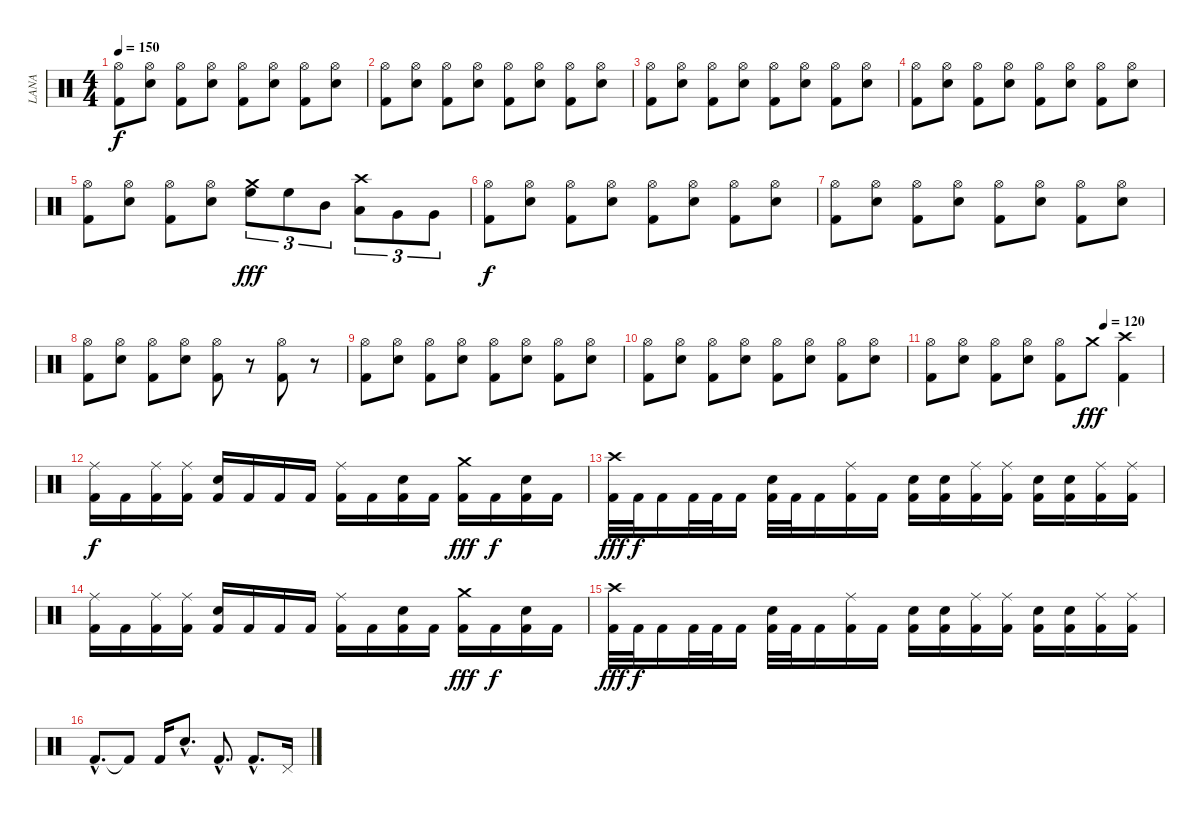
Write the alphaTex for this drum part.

\track ("LANA" "LANA") {instrument percussion}
\staff {score}
\articulation defaults
\ts (4 4)
\tempo 150
\clef neutral
\ks c
("Hi-Hat (open)" "Kick (hit) 2").8{dy f} ("Hi-Hat (open)" "Electric Snare (hit)").8 ("Hi-Hat (open)" "Kick (hit) 2").8 ("Hi-Hat (open)" "Electric Snare (hit)").8 ("Hi-Hat (open)" "Kick (hit) 2").8 ("Hi-Hat (open)" "Electric Snare (hit)").8 ("Hi-Hat (open)" "Kick (hit) 2").8 ("Hi-Hat (open)" "Electric Snare (hit)").8 |
("Hi-Hat (open)" "Kick (hit) 2").8 ("Hi-Hat (open)" "Electric Snare (hit)").8 ("Hi-Hat (open)" "Kick (hit) 2").8 ("Hi-Hat (open)" "Electric Snare (hit)").8 ("Hi-Hat (open)" "Kick (hit) 2").8 ("Hi-Hat (open)" "Electric Snare (hit)").8 ("Hi-Hat (open)" "Kick (hit) 2").8 ("Hi-Hat (open)" "Electric Snare (hit)").8 |
("Hi-Hat (open)" "Kick (hit) 2").8 ("Hi-Hat (open)" "Electric Snare (hit)").8 ("Hi-Hat (open)" "Kick (hit) 2").8 ("Hi-Hat (open)" "Electric Snare (hit)").8 ("Hi-Hat (open)" "Kick (hit) 2").8 ("Hi-Hat (open)" "Electric Snare (hit)").8 ("Hi-Hat (open)" "Kick (hit) 2").8 ("Hi-Hat (open)" "Electric Snare (hit)").8 |
("Hi-Hat (open)" "Kick (hit) 2").8 ("Hi-Hat (open)" "Electric Snare (hit)").8 ("Hi-Hat (open)" "Kick (hit) 2").8 ("Hi-Hat (open)" "Electric Snare (hit)").8 ("Hi-Hat (open)" "Kick (hit) 2").8 ("Hi-Hat (open)" "Electric Snare (hit)").8 ("Hi-Hat (open)" "Kick (hit) 2").8 ("Hi-Hat (open)" "Electric Snare (hit)").8 |
("Hi-Hat (open)" "Kick (hit) 2").8 ("Hi-Hat (open)" "Electric Snare (hit)").8 ("Hi-Hat (open)" "Kick (hit) 2").8 ("Hi-Hat (open)" "Electric Snare (hit)").8 ("Crash medium (hit)" "High Floor Tom (hit)").8{tu (3 2) dy fff} "High Floor Tom (hit)".8{tu (3 2)} "Mid Tom (hit)".8{tu (3 2)} ("Crash high (hit)" "Low Tom (hit)").8{tu (3 2)} "Very Low Tom (hit)".8{tu (3 2)} "Very Low Tom (hit)".8{tu (3 2)} |
("Hi-Hat (open)" "Kick (hit) 2").8{dy f} ("Hi-Hat (open)" "Electric Snare (hit)").8 ("Hi-Hat (open)" "Kick (hit) 2").8 ("Hi-Hat (open)" "Electric Snare (hit)").8 ("Hi-Hat (open)" "Kick (hit) 2").8 ("Hi-Hat (open)" "Electric Snare (hit)").8 ("Hi-Hat (open)" "Kick (hit) 2").8 ("Hi-Hat (open)" "Electric Snare (hit)").8 |
("Hi-Hat (open)" "Kick (hit) 2").8 ("Hi-Hat (open)" "Electric Snare (hit)").8 ("Hi-Hat (open)" "Kick (hit) 2").8 ("Hi-Hat (open)" "Electric Snare (hit)").8 ("Hi-Hat (open)" "Kick (hit) 2").8 ("Hi-Hat (open)" "Electric Snare (hit)").8 ("Hi-Hat (open)" "Kick (hit) 2").8 ("Hi-Hat (open)" "Electric Snare (hit)").8 |
("Hi-Hat (open)" "Kick (hit) 2").8 ("Hi-Hat (open)" "Electric Snare (hit)").8 ("Hi-Hat (open)" "Kick (hit) 2").8 ("Hi-Hat (open)" "Electric Snare (hit)").8 ("Hi-Hat (open)" "Kick (hit) 2").8 r.8 ("Hi-Hat (open)" "Kick (hit) 2").8 r.8 |
("Hi-Hat (open)" "Kick (hit) 2").8 ("Hi-Hat (open)" "Electric Snare (hit)").8 ("Hi-Hat (open)" "Kick (hit) 2").8 ("Hi-Hat (open)" "Electric Snare (hit)").8 ("Hi-Hat (open)" "Kick (hit) 2").8 ("Hi-Hat (open)" "Electric Snare (hit)").8 ("Hi-Hat (open)" "Kick (hit) 2").8 ("Hi-Hat (open)" "Electric Snare (hit)").8 |
("Hi-Hat (open)" "Kick (hit) 2").8 ("Hi-Hat (open)" "Electric Snare (hit)").8 ("Hi-Hat (open)" "Kick (hit) 2").8 ("Hi-Hat (open)" "Electric Snare (hit)").8 ("Hi-Hat (open)" "Kick (hit) 2").8 ("Hi-Hat (open)" "Electric Snare (hit)").8 ("Hi-Hat (open)" "Kick (hit) 2").8 ("Hi-Hat (open)" "Electric Snare (hit)").8 |
\tempo (120 0.75)
("Hi-Hat (open)" "Kick (hit) 2").8 ("Hi-Hat (open)" "Electric Snare (hit)").8 ("Hi-Hat (open)" "Kick (hit) 2").8 ("Hi-Hat (open)" "Electric Snare (hit)").8 ("Hi-Hat (open)" "Kick (hit) 2").8 "Crash medium (hit)".8{dy fff} ("Crash high (hit)" "Kick (hit) 2").4 |
("Ride (middle)" "Kick (hit) 2").16{dy f} "Kick (hit) 2".16 ("Ride (middle)" "Kick (hit) 2").16 ("Ride (middle)" "Kick (hit) 2").16 ("Electric Snare (hit)" "Kick (hit) 2").16 "Kick (hit) 2".16 "Kick (hit) 2".16 "Kick (hit) 2".16 ("Ride (middle)" "Kick (hit) 2").16 "Kick (hit) 2".16 ("Electric Snare (hit)" "Kick (hit) 2").16 "Kick (hit) 2".16 ("Crash medium (hit)" "Kick (hit) 2").16{dy fff} "Kick (hit) 2".16{dy f} ("Electric Snare (hit)" "Kick (hit) 2").16 "Kick (hit) 2".16 |
("Crash high (hit)" "Kick (hit) 2").32{dy fff} "Kick (hit) 2".32{dy f} "Kick (hit) 2".16 "Kick (hit) 2".32 "Kick (hit) 2".32 "Kick (hit) 2".16 ("Electric Snare (hit)" "Kick (hit) 2").32 "Kick (hit) 2".32 "Kick (hit) 2".16 ("Ride (middle)" "Kick (hit) 2").16 "Kick (hit) 2".16 ("Electric Snare (hit)" "Kick (hit) 2").16 ("Electric Snare (hit)" "Kick (hit) 2").16 ("Ride (middle)" "Kick (hit) 2").16 ("Ride (middle)" "Kick (hit) 2").16 ("Electric Snare (hit)" "Kick (hit) 2").16 ("Electric Snare (hit)" "Kick (hit) 2").16 ("Ride (middle)" "Kick (hit) 2").16 ("Ride (middle)" "Kick (hit) 2").16 |
("Ride (middle)" "Kick (hit) 2").16 "Kick (hit) 2".16 ("Ride (middle)" "Kick (hit) 2").16 ("Ride (middle)" "Kick (hit) 2").16 ("Electric Snare (hit)" "Kick (hit) 2").16 "Kick (hit) 2".16 "Kick (hit) 2".16 "Kick (hit) 2".16 ("Ride (middle)" "Kick (hit) 2").16 "Kick (hit) 2".16 ("Electric Snare (hit)" "Kick (hit) 2").16 "Kick (hit) 2".16 ("Crash medium (hit)" "Kick (hit) 2").16{dy fff} "Kick (hit) 2".16{dy f} ("Electric Snare (hit)" "Kick (hit) 2").16 "Kick (hit) 2".16 |
("Crash high (hit)" "Kick (hit) 2").32{dy fff} "Kick (hit) 2".32{dy f} "Kick (hit) 2".16 "Kick (hit) 2".32 "Kick (hit) 2".32 "Kick (hit) 2".16 ("Electric Snare (hit)" "Kick (hit) 2").32 "Kick (hit) 2".32 "Kick (hit) 2".16 ("Ride (middle)" "Kick (hit) 2").16 "Kick (hit) 2".16 ("Electric Snare (hit)" "Kick (hit) 2").16 ("Electric Snare (hit)" "Kick (hit) 2").16 ("Ride (middle)" "Kick (hit) 2").16 ("Ride (middle)" "Kick (hit) 2").16 ("Electric Snare (hit)" "Kick (hit) 2").16 ("Electric Snare (hit)" "Kick (hit) 2").16 ("Ride (middle)" "Kick (hit) 2").16 ("Ride (middle)" "Kick (hit) 2").16 |
"Kick (hit) 2"{hac}.8{d} "Kick (hit) 2"{t}.8 "Kick (hit) 2".16 "Electric Snare (hit)"{hac}.8{d} "Kick (hit) 2"{hac}.8{d} "Kick (hit) 2"{hac}.8{d} "Pedal Hi-Hat (hit)".16
